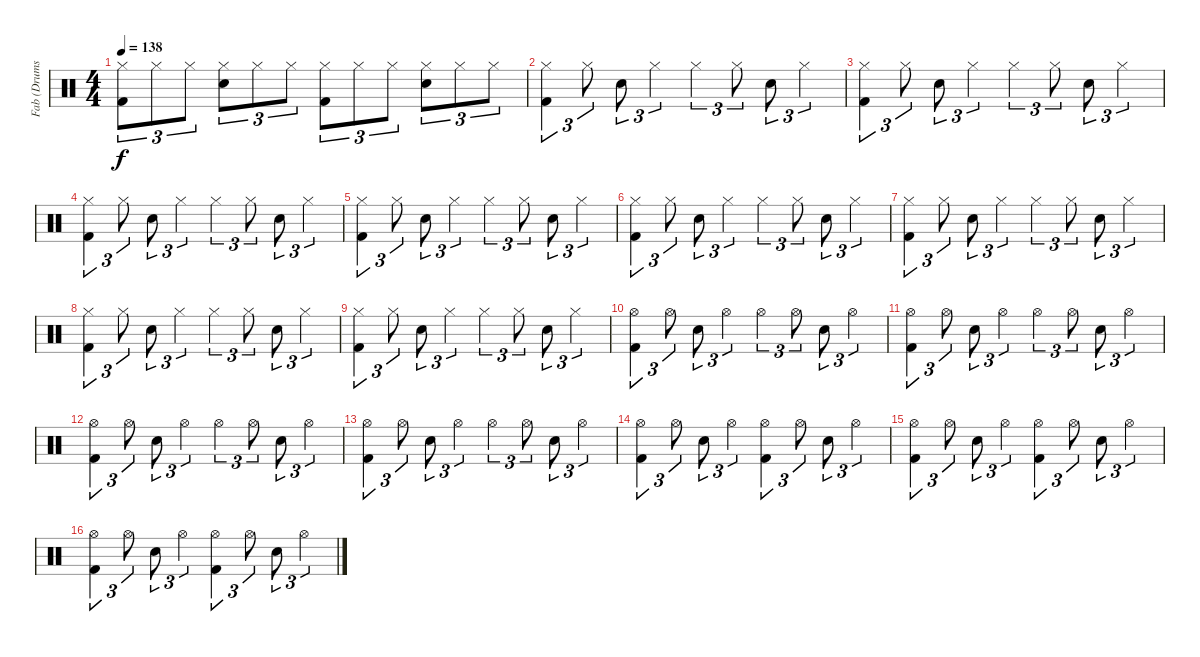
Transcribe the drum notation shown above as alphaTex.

\track ("Fab (Drums)" "Fab (Drums") {instrument percussion}
\staff {score}
\articulation defaults
\ts (4 4)
\tempo 138
\clef neutral
\ks c
("Hi-Hat (closed)" "Kick (hit) 2").8{tu (3 2) dy f} "Hi-Hat (closed)".8{tu (3 2)} "Hi-Hat (closed)".8{tu (3 2)} ("Hi-Hat (closed)" "Electric Snare (hit)").8{tu (3 2)} "Hi-Hat (closed)".8{tu (3 2)} "Hi-Hat (closed)".8{tu (3 2)} ("Hi-Hat (closed)" "Kick (hit) 2").8{tu (3 2)} "Hi-Hat (closed)".8{tu (3 2)} "Hi-Hat (closed)".8{tu (3 2)} ("Hi-Hat (closed)" "Electric Snare (hit)").8{tu (3 2)} "Hi-Hat (closed)".8{tu (3 2)} "Hi-Hat (closed)".8{tu (3 2)} |
("Hi-Hat (closed)" "Kick (hit) 2").4{tu (3 2)} "Hi-Hat (closed)".8{tu (3 2)} "Electric Snare (hit)".8{tu (3 2)} "Hi-Hat (closed)".4{tu (3 2)} "Hi-Hat (closed)".4{tu (3 2)} "Hi-Hat (closed)".8{tu (3 2)} "Electric Snare (hit)".8{tu (3 2)} "Hi-Hat (closed)".4{tu (3 2)} |
("Hi-Hat (closed)" "Kick (hit) 2").4{tu (3 2)} "Hi-Hat (closed)".8{tu (3 2)} "Electric Snare (hit)".8{tu (3 2)} "Hi-Hat (closed)".4{tu (3 2)} "Hi-Hat (closed)".4{tu (3 2)} "Hi-Hat (closed)".8{tu (3 2)} "Electric Snare (hit)".8{tu (3 2)} "Hi-Hat (closed)".4{tu (3 2)} |
("Hi-Hat (closed)" "Kick (hit) 2").4{tu (3 2)} "Hi-Hat (closed)".8{tu (3 2)} "Electric Snare (hit)".8{tu (3 2)} "Hi-Hat (closed)".4{tu (3 2)} "Hi-Hat (closed)".4{tu (3 2)} "Hi-Hat (closed)".8{tu (3 2)} "Electric Snare (hit)".8{tu (3 2)} "Hi-Hat (closed)".4{tu (3 2)} |
("Hi-Hat (closed)" "Kick (hit) 2").4{tu (3 2)} "Hi-Hat (closed)".8{tu (3 2)} "Electric Snare (hit)".8{tu (3 2)} "Hi-Hat (closed)".4{tu (3 2)} "Hi-Hat (closed)".4{tu (3 2)} "Hi-Hat (closed)".8{tu (3 2)} "Electric Snare (hit)".8{tu (3 2)} "Hi-Hat (closed)".4{tu (3 2)} |
("Hi-Hat (closed)" "Kick (hit) 2").4{tu (3 2)} "Hi-Hat (closed)".8{tu (3 2)} "Electric Snare (hit)".8{tu (3 2)} "Hi-Hat (closed)".4{tu (3 2)} "Hi-Hat (closed)".4{tu (3 2)} "Hi-Hat (closed)".8{tu (3 2)} "Electric Snare (hit)".8{tu (3 2)} "Hi-Hat (closed)".4{tu (3 2)} |
("Hi-Hat (closed)" "Kick (hit) 2").4{tu (3 2)} "Hi-Hat (closed)".8{tu (3 2)} "Electric Snare (hit)".8{tu (3 2)} "Hi-Hat (closed)".4{tu (3 2)} "Hi-Hat (closed)".4{tu (3 2)} "Hi-Hat (closed)".8{tu (3 2)} "Electric Snare (hit)".8{tu (3 2)} "Hi-Hat (closed)".4{tu (3 2)} |
("Hi-Hat (closed)" "Kick (hit) 2").4{tu (3 2)} "Hi-Hat (closed)".8{tu (3 2)} "Electric Snare (hit)".8{tu (3 2)} "Hi-Hat (closed)".4{tu (3 2)} "Hi-Hat (closed)".4{tu (3 2)} "Hi-Hat (closed)".8{tu (3 2)} "Electric Snare (hit)".8{tu (3 2)} "Hi-Hat (closed)".4{tu (3 2)} |
("Hi-Hat (closed)" "Kick (hit) 2").4{tu (3 2)} "Hi-Hat (closed)".8{tu (3 2)} "Electric Snare (hit)".8{tu (3 2)} "Hi-Hat (closed)".4{tu (3 2)} "Hi-Hat (closed)".4{tu (3 2)} "Hi-Hat (closed)".8{tu (3 2)} "Electric Snare (hit)".8{tu (3 2)} "Hi-Hat (closed)".4{tu (3 2)} |
("Hi-Hat (open)" "Kick (hit) 2").4{tu (3 2)} "Hi-Hat (open)".8{tu (3 2)} "Electric Snare (hit)".8{tu (3 2)} "Hi-Hat (open)".4{tu (3 2)} "Hi-Hat (open)".4{tu (3 2)} "Hi-Hat (open)".8{tu (3 2)} "Electric Snare (hit)".8{tu (3 2)} "Hi-Hat (open)".4{tu (3 2)} |
("Hi-Hat (open)" "Kick (hit) 2").4{tu (3 2)} "Hi-Hat (open)".8{tu (3 2)} "Electric Snare (hit)".8{tu (3 2)} "Hi-Hat (open)".4{tu (3 2)} "Hi-Hat (open)".4{tu (3 2)} "Hi-Hat (open)".8{tu (3 2)} "Electric Snare (hit)".8{tu (3 2)} "Hi-Hat (open)".4{tu (3 2)} |
("Hi-Hat (open)" "Kick (hit) 2").4{tu (3 2)} "Hi-Hat (open)".8{tu (3 2)} "Electric Snare (hit)".8{tu (3 2)} "Hi-Hat (open)".4{tu (3 2)} "Hi-Hat (open)".4{tu (3 2)} "Hi-Hat (open)".8{tu (3 2)} "Electric Snare (hit)".8{tu (3 2)} "Hi-Hat (open)".4{tu (3 2)} |
("Hi-Hat (open)" "Kick (hit) 2").4{tu (3 2)} "Hi-Hat (open)".8{tu (3 2)} "Electric Snare (hit)".8{tu (3 2)} "Hi-Hat (open)".4{tu (3 2)} "Hi-Hat (open)".4{tu (3 2)} "Hi-Hat (open)".8{tu (3 2)} "Electric Snare (hit)".8{tu (3 2)} "Hi-Hat (open)".4{tu (3 2)} |
("Hi-Hat (open)" "Kick (hit) 2").4{tu (3 2)} "Hi-Hat (open)".8{tu (3 2)} "Electric Snare (hit)".8{tu (3 2)} "Hi-Hat (open)".4{tu (3 2)} ("Hi-Hat (open)" "Kick (hit) 2").4{tu (3 2)} "Hi-Hat (open)".8{tu (3 2)} "Electric Snare (hit)".8{tu (3 2)} "Hi-Hat (open)".4{tu (3 2)} |
("Hi-Hat (open)" "Kick (hit) 2").4{tu (3 2)} "Hi-Hat (open)".8{tu (3 2)} "Electric Snare (hit)".8{tu (3 2)} "Hi-Hat (open)".4{tu (3 2)} ("Hi-Hat (open)" "Kick (hit) 2").4{tu (3 2)} "Hi-Hat (open)".8{tu (3 2)} "Electric Snare (hit)".8{tu (3 2)} "Hi-Hat (open)".4{tu (3 2)} |
("Hi-Hat (open)" "Kick (hit) 2").4{tu (3 2)} "Hi-Hat (open)".8{tu (3 2)} "Electric Snare (hit)".8{tu (3 2)} "Hi-Hat (open)".4{tu (3 2)} ("Hi-Hat (open)" "Kick (hit) 2").4{tu (3 2)} "Hi-Hat (open)".8{tu (3 2)} "Electric Snare (hit)".8{tu (3 2)} "Hi-Hat (open)".4{tu (3 2)}
